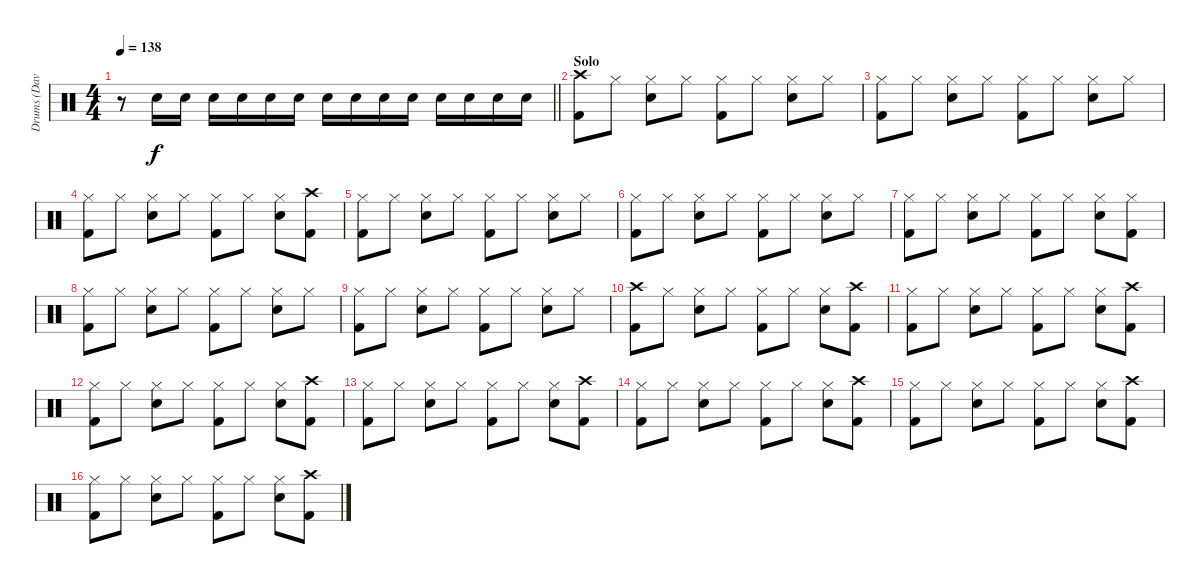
\track ("Drums (Dave Holland)" "Drums (Dav") {instrument percussion}
\staff {score}
\articulation defaults
\ts (4 4)
\tempo 138
\clef neutral
\barLineRight lightlight
\ks c
r.8{dy f} "Snare (hit) 2".16 "Snare (hit) 2".16 "Snare (hit) 2".16 "Snare (hit) 2".16 "Snare (hit) 2".16 "Snare (hit) 2".16 "Snare (hit) 2".16 "Snare (hit) 2".16 "Snare (hit) 2".16 "Snare (hit) 2".16 "Snare (hit) 2".16 "Snare (hit) 2".16 "Snare (hit) 2".16 "Snare (hit) 2".16 |
\section ("" "Solo")
("Crash high (hit)" "Kick (hit) 2").8 "Hi-Hat (closed)".8 ("Hi-Hat (closed)" "Snare (hit) 2").8 "Hi-Hat (closed)".8 ("Hi-Hat (closed)" "Kick (hit) 2").8 "Hi-Hat (closed)".8 ("Hi-Hat (closed)" "Snare (hit) 2").8 "Hi-Hat (closed)".8 |
("Hi-Hat (closed)" "Kick (hit) 2").8 "Hi-Hat (closed)".8 ("Hi-Hat (closed)" "Snare (hit) 2").8 "Hi-Hat (closed)".8 ("Hi-Hat (closed)" "Kick (hit) 2").8 "Hi-Hat (closed)".8 ("Hi-Hat (closed)" "Snare (hit) 2").8 "Hi-Hat (closed)".8 |
("Hi-Hat (closed)" "Kick (hit) 2").8 "Hi-Hat (closed)".8 ("Hi-Hat (closed)" "Snare (hit) 2").8 "Hi-Hat (closed)".8 ("Hi-Hat (closed)" "Kick (hit) 2").8 "Hi-Hat (closed)".8 ("Hi-Hat (closed)" "Snare (hit) 2").8 ("Crash high (hit)" "Kick (hit) 2").8 |
("Hi-Hat (closed)" "Kick (hit) 2").8 "Hi-Hat (closed)".8 ("Hi-Hat (closed)" "Snare (hit) 2").8 "Hi-Hat (closed)".8 ("Hi-Hat (closed)" "Kick (hit) 2").8 "Hi-Hat (closed)".8 ("Hi-Hat (closed)" "Snare (hit) 2").8 "Hi-Hat (closed)".8 |
("Hi-Hat (closed)" "Kick (hit) 2").8 "Hi-Hat (closed)".8 ("Hi-Hat (closed)" "Snare (hit) 2").8 "Hi-Hat (closed)".8 ("Hi-Hat (closed)" "Kick (hit) 2").8 "Hi-Hat (closed)".8 ("Hi-Hat (closed)" "Snare (hit) 2").8 "Hi-Hat (closed)".8 |
("Hi-Hat (closed)" "Kick (hit) 2").8 "Hi-Hat (closed)".8 ("Hi-Hat (closed)" "Snare (hit) 2").8 "Hi-Hat (closed)".8 ("Hi-Hat (closed)" "Kick (hit) 2").8 "Hi-Hat (closed)".8 ("Hi-Hat (closed)" "Snare (hit) 2").8 ("Hi-Hat (closed)" "Kick (hit) 2").8 |
("Hi-Hat (closed)" "Kick (hit) 2").8 "Hi-Hat (closed)".8 ("Hi-Hat (closed)" "Snare (hit) 2").8 "Hi-Hat (closed)".8 ("Hi-Hat (closed)" "Kick (hit) 2").8 "Hi-Hat (closed)".8 ("Hi-Hat (closed)" "Snare (hit) 2").8 "Hi-Hat (closed)".8 |
("Hi-Hat (closed)" "Kick (hit) 2").8 "Hi-Hat (closed)".8 ("Hi-Hat (closed)" "Snare (hit) 2").8 "Hi-Hat (closed)".8 ("Hi-Hat (closed)" "Kick (hit) 2").8 "Hi-Hat (closed)".8 ("Hi-Hat (closed)" "Snare (hit) 2").8 "Hi-Hat (closed)".8 |
("Crash high (hit)" "Kick (hit) 2").8 "Hi-Hat (closed)".8 ("Hi-Hat (closed)" "Snare (hit) 2").8 "Hi-Hat (closed)".8 ("Hi-Hat (closed)" "Kick (hit) 2").8 "Hi-Hat (closed)".8 ("Hi-Hat (closed)" "Snare (hit) 2").8 ("Crash high (hit)" "Kick (hit) 2").8 |
("Hi-Hat (closed)" "Kick (hit) 2").8 "Hi-Hat (closed)".8 ("Hi-Hat (closed)" "Snare (hit) 2").8 "Hi-Hat (closed)".8 ("Hi-Hat (closed)" "Kick (hit) 2").8 "Hi-Hat (closed)".8 ("Hi-Hat (closed)" "Snare (hit) 2").8 ("Crash high (hit)" "Kick (hit) 2").8 |
("Hi-Hat (closed)" "Kick (hit) 2").8 "Hi-Hat (closed)".8 ("Hi-Hat (closed)" "Snare (hit) 2").8 "Hi-Hat (closed)".8 ("Hi-Hat (closed)" "Kick (hit) 2").8 "Hi-Hat (closed)".8 ("Hi-Hat (closed)" "Snare (hit) 2").8 ("Crash high (hit)" "Kick (hit) 2").8 |
("Hi-Hat (closed)" "Kick (hit) 2").8 "Hi-Hat (closed)".8 ("Hi-Hat (closed)" "Snare (hit) 2").8 "Hi-Hat (closed)".8 ("Hi-Hat (closed)" "Kick (hit) 2").8 "Hi-Hat (closed)".8 ("Hi-Hat (closed)" "Snare (hit) 2").8 ("Crash high (hit)" "Kick (hit) 2").8 |
("Hi-Hat (closed)" "Kick (hit) 2").8 "Hi-Hat (closed)".8 ("Hi-Hat (closed)" "Snare (hit) 2").8 "Hi-Hat (closed)".8 ("Hi-Hat (closed)" "Kick (hit) 2").8 "Hi-Hat (closed)".8 ("Hi-Hat (closed)" "Snare (hit) 2").8 ("Crash high (hit)" "Kick (hit) 2").8 |
("Hi-Hat (closed)" "Kick (hit) 2").8 "Hi-Hat (closed)".8 ("Hi-Hat (closed)" "Snare (hit) 2").8 "Hi-Hat (closed)".8 ("Hi-Hat (closed)" "Kick (hit) 2").8 "Hi-Hat (closed)".8 ("Hi-Hat (closed)" "Snare (hit) 2").8 ("Crash high (hit)" "Kick (hit) 2").8 |
("Hi-Hat (closed)" "Kick (hit) 2").8 "Hi-Hat (closed)".8 ("Hi-Hat (closed)" "Snare (hit) 2").8 "Hi-Hat (closed)".8 ("Hi-Hat (closed)" "Kick (hit) 2").8 "Hi-Hat (closed)".8 ("Hi-Hat (closed)" "Snare (hit) 2").8 ("Crash high (hit)" "Kick (hit) 2").8
